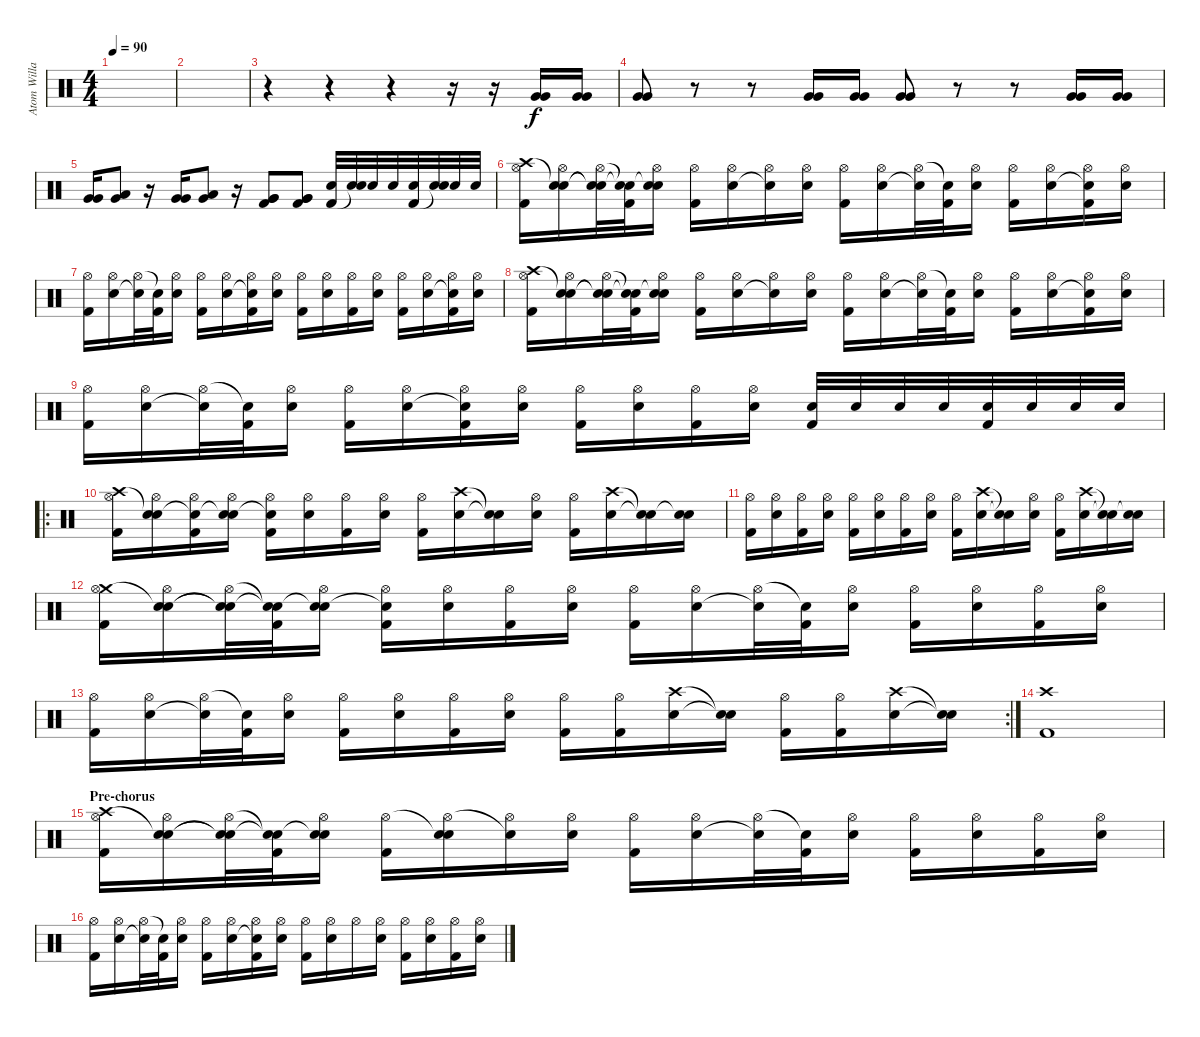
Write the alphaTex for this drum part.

\track ("Atom Willard (Drums)" "Atom Willa") {instrument percussion}
\staff {score}
\articulation defaults
\ts (4 4)
\tempo 90
\clef neutral
\ks c
|
|
r.4 r.4 r.4 r.16 r.16 ("Very Low Tom (hit)" "Very Low Tom (hit)").16 ("Very Low Tom (hit)" "Very Low Tom (hit)").16 |
("Very Low Tom (hit)" "Very Low Tom (hit)").8 r.8 r.8 ("Very Low Tom (hit)" "Very Low Tom (hit)").16 ("Very Low Tom (hit)" "Very Low Tom (hit)").16 ("Very Low Tom (hit)" "Very Low Tom (hit)").8 r.8 r.8 ("Very Low Tom (hit)" "Very Low Tom (hit)").16 ("Very Low Tom (hit)" "Very Low Tom (hit)").16 |
("Very Low Tom (hit)" "Very Low Tom (hit)").16 ("Very Low Tom (hit)" "Low Floor Tom (hit)").8 r.16 ("Very Low Tom (hit)" "Very Low Tom (hit)").16 ("Very Low Tom (hit)" "Low Floor Tom (hit)").8 r.16 ("Very Low Tom (hit)" "Very Low Tom (hit)" "Kick (hit) 2").8 ("Very Low Tom (hit)" "Very Low Tom (hit)" "Kick (hit) 2").8 ("Electric Snare (hit)" "Kick (hit) 2").32 ("Electric Snare (hit)" "Snare (hit)"{t}).32 "Electric Snare (hit)".32 "Electric Snare (hit)".32 ("Electric Snare (hit)" "Kick (hit) 2").32 ("Electric Snare (hit)" "Snare (hit)"{t}).32 "Electric Snare (hit)".32 "Electric Snare (hit)".32 |
("Crash high (hit)" "Hi-Hat (open)" "Kick (hit) 2").16 ("Snare (hit)"{t} "Hi-Hat (open)" "Electric Snare (hit)").16 ("Snare (hit)"{t} "Hi-Hat (open)" "Snare (hit)"{t}).32 ("Snare (hit)"{t} "Snare (hit)"{t} "Kick (hit) 2").32 ("Snare (hit)"{t} "Hi-Hat (open)" "Electric Snare (hit)").16 ("Hi-Hat (open)" "Kick (hit) 2").16 ("Hi-Hat (open)" "Electric Snare (hit)").16 ("Hi-Hat (open)" "Snare (hit)"{t}).16 ("Hi-Hat (open)" "Electric Snare (hit)").16 ("Hi-Hat (open)" "Kick (hit) 2").16 ("Hi-Hat (open)" "Electric Snare (hit)").16 ("Hi-Hat (open)" "Snare (hit)"{t}).32 ("Snare (hit)"{t} "Kick (hit) 2").32 ("Hi-Hat (open)" "Electric Snare (hit)").16 ("Hi-Hat (open)" "Kick (hit) 2").16 ("Hi-Hat (open)" "Electric Snare (hit)").16 ("Hi-Hat (open)" "Snare (hit)"{t} "Kick (hit) 2").16 ("Hi-Hat (open)" "Electric Snare (hit)").16 |
("Hi-Hat (open)" "Kick (hit) 2").16 ("Hi-Hat (open)" "Electric Snare (hit)").16 ("Hi-Hat (open)" "Snare (hit)"{t}).32 ("Snare (hit)"{t} "Kick (hit) 2").32 ("Hi-Hat (open)" "Electric Snare (hit)").16 ("Hi-Hat (open)" "Kick (hit) 2").16 ("Hi-Hat (open)" "Electric Snare (hit)").16 ("Hi-Hat (open)" "Snare (hit)"{t} "Kick (hit) 2").16 ("Hi-Hat (open)" "Electric Snare (hit)").16 ("Hi-Hat (open)" "Kick (hit) 2").16 ("Hi-Hat (open)" "Electric Snare (hit)").16 ("Hi-Hat (open)" "Kick (hit) 2").16 ("Hi-Hat (open)" "Electric Snare (hit)").16 ("Hi-Hat (open)" "Kick (hit) 2").16 ("Hi-Hat (open)" "Electric Snare (hit)").16 ("Hi-Hat (open)" "Snare (hit)"{t} "Kick (hit) 2").16 ("Hi-Hat (open)" "Electric Snare (hit)").16 |
("Crash high (hit)" "Hi-Hat (open)" "Kick (hit) 2").16 ("Snare (hit)"{t} "Hi-Hat (open)" "Electric Snare (hit)").16 ("Snare (hit)"{t} "Hi-Hat (open)" "Snare (hit)"{t}).32 ("Snare (hit)"{t} "Snare (hit)"{t} "Kick (hit) 2").32 ("Snare (hit)"{t} "Hi-Hat (open)" "Electric Snare (hit)").16 ("Hi-Hat (open)" "Kick (hit) 2").16 ("Hi-Hat (open)" "Electric Snare (hit)").16 ("Hi-Hat (open)" "Snare (hit)"{t}).16 ("Hi-Hat (open)" "Electric Snare (hit)").16 ("Hi-Hat (open)" "Kick (hit) 2").16 ("Hi-Hat (open)" "Electric Snare (hit)").16 ("Hi-Hat (open)" "Snare (hit)"{t}).32 ("Snare (hit)"{t} "Kick (hit) 2").32 ("Hi-Hat (open)" "Electric Snare (hit)").16 ("Hi-Hat (open)" "Kick (hit) 2").16 ("Hi-Hat (open)" "Electric Snare (hit)").16 ("Hi-Hat (open)" "Snare (hit)"{t} "Kick (hit) 2").16 ("Hi-Hat (open)" "Electric Snare (hit)").16 |
("Hi-Hat (open)" "Kick (hit) 2").16 ("Hi-Hat (open)" "Electric Snare (hit)").16 ("Hi-Hat (open)" "Snare (hit)"{t}).32 ("Snare (hit)"{t} "Kick (hit) 2").32 ("Hi-Hat (open)" "Electric Snare (hit)").16 ("Hi-Hat (open)" "Kick (hit) 2").16 ("Hi-Hat (open)" "Electric Snare (hit)").16 ("Hi-Hat (open)" "Snare (hit)"{t} "Kick (hit) 2").16 ("Hi-Hat (open)" "Electric Snare (hit)").16 ("Hi-Hat (open)" "Kick (hit) 2").16 ("Hi-Hat (open)" "Electric Snare (hit)").16 ("Hi-Hat (open)" "Kick (hit) 2").16 ("Hi-Hat (open)" "Electric Snare (hit)").16 ("Electric Snare (hit)" "Kick (hit) 2").32 "Electric Snare (hit)".32 "Electric Snare (hit)".32 "Electric Snare (hit)".32 ("Electric Snare (hit)" "Kick (hit) 2").32 "Electric Snare (hit)".32 "Electric Snare (hit)".32 "Electric Snare (hit)".32 |
\ro
("Crash high (hit)" "Hi-Hat (open)" "Kick (hit) 2").16 ("Snare (hit)"{t} "Hi-Hat (open)" "Electric Snare (hit)").16 ("Snare (hit)"{t} "Hi-Hat (open)" "Kick (hit) 2").16 ("Snare (hit)"{t} "Hi-Hat (open)" "Electric Snare (hit)").16 ("Snare (hit)"{t} "Hi-Hat (open)" "Kick (hit) 2").16 ("Hi-Hat (open)" "Electric Snare (hit)").16 ("Hi-Hat (open)" "Kick (hit) 2").16 ("Hi-Hat (open)" "Electric Snare (hit)").16 ("Hi-Hat (open)" "Kick (hit) 2").16 ("Crash high (hit)" "Electric Snare (hit)").16 ("Snare (hit)"{t} "Snare (hit)"{t}).16 ("Hi-Hat (open)" "Electric Snare (hit)").16 ("Hi-Hat (open)" "Kick (hit) 2").16 ("Crash high (hit)" "Electric Snare (hit)").16 ("Snare (hit)"{t} "Snare (hit)"{t}).16 ("Snare (hit)"{t} "Electric Snare (hit)").16 |
("Hi-Hat (open)" "Kick (hit) 2").16 ("Hi-Hat (open)" "Electric Snare (hit)").16 ("Hi-Hat (open)" "Kick (hit) 2").16 ("Hi-Hat (open)" "Electric Snare (hit)").16 ("Hi-Hat (open)" "Kick (hit) 2").16 ("Hi-Hat (open)" "Electric Snare (hit)").16 ("Hi-Hat (open)" "Kick (hit) 2").16 ("Hi-Hat (open)" "Electric Snare (hit)").16 ("Hi-Hat (open)" "Kick (hit) 2").16 ("Crash high (hit)" "Electric Snare (hit)").16 ("Snare (hit)"{t} "Snare (hit)"{t}).16 ("Hi-Hat (open)" "Electric Snare (hit)").16 ("Hi-Hat (open)" "Kick (hit) 2").16 ("Crash high (hit)" "Electric Snare (hit)").16 ("Snare (hit)"{t} "Snare (hit)"{t}).16 ("Snare (hit)"{t} "Electric Snare (hit)").16 |
("Crash medium (hit)" "Hi-Hat (open)" "Kick (hit) 2").16 ("Snare (hit)"{t} "Hi-Hat (open)" "Electric Snare (hit)").16 ("Snare (hit)"{t} "Hi-Hat (open)" "Snare (hit)"{t}).32 ("Snare (hit)"{t} "Snare (hit)"{t} "Kick (hit) 2").32 ("Snare (hit)"{t} "Hi-Hat (open)" "Electric Snare (hit)").16 ("Snare (hit)"{t} "Hi-Hat (open)" "Kick (hit) 2").16 ("Hi-Hat (open)" "Electric Snare (hit)").16 ("Hi-Hat (open)" "Kick (hit) 2").16 ("Hi-Hat (open)" "Electric Snare (hit)").16 ("Hi-Hat (open)" "Kick (hit) 2").16 ("Hi-Hat (open)" "Electric Snare (hit)").16 ("Hi-Hat (open)" "Snare (hit)"{t}).32 ("Snare (hit)"{t} "Kick (hit) 2").32 ("Hi-Hat (open)" "Electric Snare (hit)").16 ("Hi-Hat (open)" "Kick (hit) 2").16 ("Hi-Hat (open)" "Electric Snare (hit)").16 ("Hi-Hat (open)" "Kick (hit) 2").16 ("Hi-Hat (open)" "Electric Snare (hit)").16 |
\rc 2
("Hi-Hat (open)" "Kick (hit) 2").16 ("Hi-Hat (open)" "Electric Snare (hit)").16 ("Hi-Hat (open)" "Snare (hit)"{t}).32 ("Snare (hit)"{t} "Kick (hit) 2").32 ("Hi-Hat (open)" "Electric Snare (hit)").16 ("Hi-Hat (open)" "Kick (hit) 2").16 ("Hi-Hat (open)" "Electric Snare (hit)").16 ("Hi-Hat (open)" "Kick (hit) 2").16 ("Hi-Hat (open)" "Electric Snare (hit)").16 ("Hi-Hat (open)" "Kick (hit) 2").16 ("Hi-Hat (open)" "Kick (hit) 2").16 ("Crash high (hit)" "Electric Snare (hit)").16 ("Snare (hit)"{t} "Snare (hit)"{t}).16 ("Hi-Hat (open)" "Kick (hit) 2").16 ("Hi-Hat (open)" "Kick (hit) 2").16 ("Crash high (hit)" "Electric Snare (hit)").16 ("Snare (hit)"{t} "Snare (hit)"{t}).16 |
("Crash high (hit)" "Kick (hit) 2").1 |
\section ("" "Pre-chorus")
("Crash high (hit)" "Hi-Hat (open)" "Kick (hit) 2").16 ("Snare (hit)"{t} "Hi-Hat (open)" "Electric Snare (hit)").16 ("Snare (hit)"{t} "Hi-Hat (open)" "Snare (hit)"{t}).32 ("Snare (hit)"{t} "Snare (hit)"{t} "Kick (hit) 2").32 ("Snare (hit)"{t} "Hi-Hat (open)" "Electric Snare (hit)").16 ("Hi-Hat (open)" "Kick (hit) 2").16 ("Snare (hit)"{t} "Hi-Hat (open)" "Electric Snare (hit)").16 ("Hi-Hat (open)" "Snare (hit)"{t}).16 ("Hi-Hat (open)" "Electric Snare (hit)").16 ("Hi-Hat (open)" "Kick (hit) 2").16 ("Hi-Hat (open)" "Electric Snare (hit)").16 ("Hi-Hat (open)" "Snare (hit)"{t}).32 ("Snare (hit)"{t} "Kick (hit) 2").32 ("Hi-Hat (open)" "Electric Snare (hit)").16 ("Hi-Hat (open)" "Kick (hit) 2").16 ("Hi-Hat (open)" "Electric Snare (hit)").16 ("Hi-Hat (open)" "Kick (hit) 2").16 ("Hi-Hat (open)" "Electric Snare (hit)").16 |
("Hi-Hat (open)" "Kick (hit) 2").16 ("Hi-Hat (open)" "Electric Snare (hit)").16 ("Hi-Hat (open)" "Snare (hit)"{t}).32 ("Snare (hit)"{t} "Kick (hit) 2").32 ("Hi-Hat (open)" "Electric Snare (hit)").16 ("Hi-Hat (open)" "Kick (hit) 2").16 ("Hi-Hat (open)" "Electric Snare (hit)").16 ("Hi-Hat (open)" "Snare (hit)"{t} "Kick (hit) 2").16 ("Hi-Hat (open)" "Electric Snare (hit)").16 ("Hi-Hat (open)" "Kick (hit) 2").16 ("Hi-Hat (open)" "Electric Snare (hit)").16 "Hi-Hat (open)".16 ("Hi-Hat (open)" "Electric Snare (hit)").16 ("Hi-Hat (open)" "Kick (hit) 2").16 ("Hi-Hat (open)" "Electric Snare (hit)").16 ("Hi-Hat (open)" "Kick (hit) 2").16 ("Hi-Hat (open)" "Electric Snare (hit)").16
